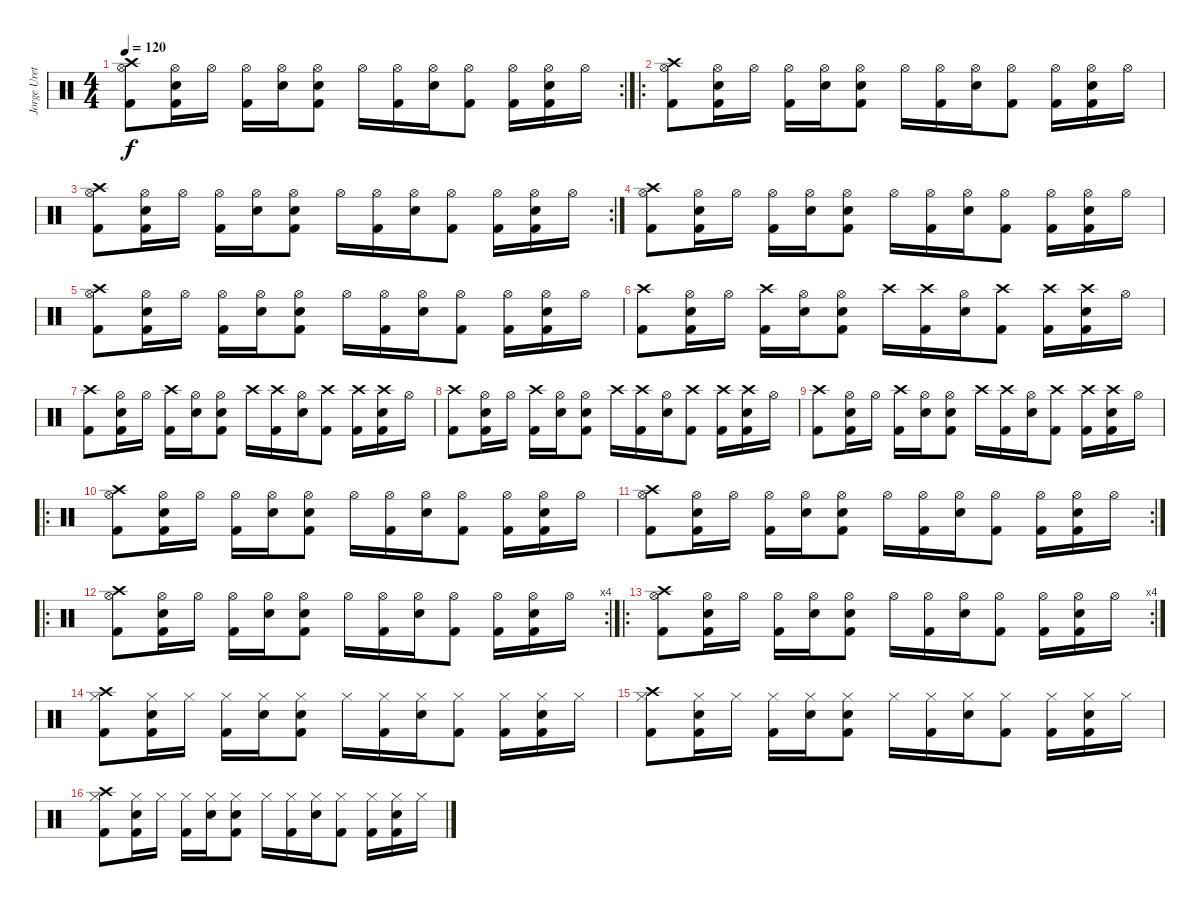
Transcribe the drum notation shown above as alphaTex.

\track ("Jorge Ureta" "Jorge Uret") {instrument percussion}
\staff {score}
\articulation defaults
\rc 2
\ts (4 4)
\tempo 120
\clef neutral
\ks c
("Crash high (hit)" "Hi-Hat (open)" "Kick (hit) 2").8{dy f} ("Hi-Hat (open)" "Electric Snare (hit)" "Kick (hit) 2").16 "Hi-Hat (open)".16 ("Hi-Hat (open)" "Kick (hit) 2").16 ("Hi-Hat (open)" "Electric Snare (hit)").16 ("Hi-Hat (open)" "Electric Snare (hit)" "Kick (hit) 2").8 "Hi-Hat (open)".16 ("Hi-Hat (open)" "Kick (hit) 2").16 ("Hi-Hat (open)" "Electric Snare (hit)").16 ("Hi-Hat (open)" "Kick (hit) 2").8 ("Hi-Hat (open)" "Kick (hit) 2").16 ("Hi-Hat (open)" "Electric Snare (hit)" "Kick (hit) 2").16 "Hi-Hat (open)".16 |
\ro
("Crash high (hit)" "Hi-Hat (open)" "Kick (hit) 2").8 ("Hi-Hat (open)" "Electric Snare (hit)" "Kick (hit) 2").16 "Hi-Hat (open)".16 ("Hi-Hat (open)" "Kick (hit) 2").16 ("Hi-Hat (open)" "Electric Snare (hit)").16 ("Hi-Hat (open)" "Electric Snare (hit)" "Kick (hit) 2").8 "Hi-Hat (open)".16 ("Hi-Hat (open)" "Kick (hit) 2").16 ("Hi-Hat (open)" "Electric Snare (hit)").16 ("Hi-Hat (open)" "Kick (hit) 2").8 ("Hi-Hat (open)" "Kick (hit) 2").16 ("Hi-Hat (open)" "Electric Snare (hit)" "Kick (hit) 2").16 "Hi-Hat (open)".16 |
\rc 2
("Crash high (hit)" "Hi-Hat (open)" "Kick (hit) 2").8 ("Hi-Hat (open)" "Electric Snare (hit)" "Kick (hit) 2").16 "Hi-Hat (open)".16 ("Hi-Hat (open)" "Kick (hit) 2").16 ("Hi-Hat (open)" "Electric Snare (hit)").16 ("Hi-Hat (open)" "Electric Snare (hit)" "Kick (hit) 2").8 "Hi-Hat (open)".16 ("Hi-Hat (open)" "Kick (hit) 2").16 ("Hi-Hat (open)" "Electric Snare (hit)").16 ("Hi-Hat (open)" "Kick (hit) 2").8 ("Hi-Hat (open)" "Kick (hit) 2").16 ("Hi-Hat (open)" "Electric Snare (hit)" "Kick (hit) 2").16 "Hi-Hat (open)".16 |
("Crash high (hit)" "Hi-Hat (open)" "Kick (hit) 2").8 ("Hi-Hat (open)" "Electric Snare (hit)" "Kick (hit) 2").16 "Hi-Hat (open)".16 ("Hi-Hat (open)" "Kick (hit) 2").16 ("Hi-Hat (open)" "Electric Snare (hit)").16 ("Hi-Hat (open)" "Electric Snare (hit)" "Kick (hit) 2").8 "Hi-Hat (open)".16 ("Hi-Hat (open)" "Kick (hit) 2").16 ("Hi-Hat (open)" "Electric Snare (hit)").16 ("Hi-Hat (open)" "Kick (hit) 2").8 ("Hi-Hat (open)" "Kick (hit) 2").16 ("Hi-Hat (open)" "Electric Snare (hit)" "Kick (hit) 2").16 "Hi-Hat (open)".16 |
("Crash high (hit)" "Hi-Hat (open)" "Kick (hit) 2").8 ("Hi-Hat (open)" "Electric Snare (hit)" "Kick (hit) 2").16 "Hi-Hat (open)".16 ("Hi-Hat (open)" "Kick (hit) 2").16 ("Hi-Hat (open)" "Electric Snare (hit)").16 ("Hi-Hat (open)" "Electric Snare (hit)" "Kick (hit) 2").8 "Hi-Hat (open)".16 ("Hi-Hat (open)" "Kick (hit) 2").16 ("Hi-Hat (open)" "Electric Snare (hit)").16 ("Hi-Hat (open)" "Kick (hit) 2").8 ("Hi-Hat (open)" "Kick (hit) 2").16 ("Hi-Hat (open)" "Electric Snare (hit)" "Kick (hit) 2").16 "Hi-Hat (open)".16 |
("Crash high (hit)" "Kick (hit) 2").8 ("Hi-Hat (open)" "Electric Snare (hit)" "Kick (hit) 2").16 "Hi-Hat (open)".16 ("Crash high (hit)" "Kick (hit) 2").16 ("Hi-Hat (open)" "Electric Snare (hit)").16 ("Hi-Hat (open)" "Electric Snare (hit)" "Kick (hit) 2").8 "Crash high (hit)".16 ("Crash high (hit)" "Kick (hit) 2").16 ("Hi-Hat (open)" "Electric Snare (hit)").16 ("Crash high (hit)" "Kick (hit) 2").8 ("Crash high (hit)" "Kick (hit) 2").16 ("Crash high (hit)" "Electric Snare (hit)" "Kick (hit) 2").16 "Hi-Hat (open)".16 |
("Crash high (hit)" "Kick (hit) 2").8 ("Hi-Hat (open)" "Electric Snare (hit)" "Kick (hit) 2").16 "Hi-Hat (open)".16 ("Crash high (hit)" "Kick (hit) 2").16 ("Hi-Hat (open)" "Electric Snare (hit)").16 ("Hi-Hat (open)" "Electric Snare (hit)" "Kick (hit) 2").8 "Crash high (hit)".16 ("Crash high (hit)" "Kick (hit) 2").16 ("Hi-Hat (open)" "Electric Snare (hit)").16 ("Crash high (hit)" "Kick (hit) 2").8 ("Crash high (hit)" "Kick (hit) 2").16 ("Crash high (hit)" "Electric Snare (hit)" "Kick (hit) 2").16 "Hi-Hat (open)".16 |
("Crash high (hit)" "Kick (hit) 2").8 ("Hi-Hat (open)" "Electric Snare (hit)" "Kick (hit) 2").16 "Hi-Hat (open)".16 ("Crash high (hit)" "Kick (hit) 2").16 ("Hi-Hat (open)" "Electric Snare (hit)").16 ("Hi-Hat (open)" "Electric Snare (hit)" "Kick (hit) 2").8 "Crash high (hit)".16 ("Crash high (hit)" "Kick (hit) 2").16 ("Hi-Hat (open)" "Electric Snare (hit)").16 ("Crash high (hit)" "Kick (hit) 2").8 ("Crash high (hit)" "Kick (hit) 2").16 ("Crash high (hit)" "Electric Snare (hit)" "Kick (hit) 2").16 "Hi-Hat (open)".16 |
("Crash high (hit)" "Kick (hit) 2").8 ("Hi-Hat (open)" "Electric Snare (hit)" "Kick (hit) 2").16 "Hi-Hat (open)".16 ("Crash high (hit)" "Kick (hit) 2").16 ("Hi-Hat (open)" "Electric Snare (hit)").16 ("Hi-Hat (open)" "Electric Snare (hit)" "Kick (hit) 2").8 "Crash high (hit)".16 ("Crash high (hit)" "Kick (hit) 2").16 ("Hi-Hat (open)" "Electric Snare (hit)").16 ("Crash high (hit)" "Kick (hit) 2").8 ("Crash high (hit)" "Kick (hit) 2").16 ("Crash high (hit)" "Electric Snare (hit)" "Kick (hit) 2").16 "Hi-Hat (open)".16 |
\ro
("Crash high (hit)" "Hi-Hat (open)" "Kick (hit) 2").8 ("Hi-Hat (open)" "Electric Snare (hit)" "Kick (hit) 2").16 "Hi-Hat (open)".16 ("Hi-Hat (open)" "Kick (hit) 2").16 ("Hi-Hat (open)" "Electric Snare (hit)").16 ("Hi-Hat (open)" "Electric Snare (hit)" "Kick (hit) 2").8 "Hi-Hat (open)".16 ("Hi-Hat (open)" "Kick (hit) 2").16 ("Hi-Hat (open)" "Electric Snare (hit)").16 ("Hi-Hat (open)" "Kick (hit) 2").8 ("Hi-Hat (open)" "Kick (hit) 2").16 ("Hi-Hat (open)" "Electric Snare (hit)" "Kick (hit) 2").16 "Hi-Hat (open)".16 |
\rc 2
("Crash high (hit)" "Hi-Hat (open)" "Kick (hit) 2").8 ("Hi-Hat (open)" "Electric Snare (hit)" "Kick (hit) 2").16 "Hi-Hat (open)".16 ("Hi-Hat (open)" "Kick (hit) 2").16 ("Hi-Hat (open)" "Electric Snare (hit)").16 ("Hi-Hat (open)" "Electric Snare (hit)" "Kick (hit) 2").8 "Hi-Hat (open)".16 ("Hi-Hat (open)" "Kick (hit) 2").16 ("Hi-Hat (open)" "Electric Snare (hit)").16 ("Hi-Hat (open)" "Kick (hit) 2").8 ("Hi-Hat (open)" "Kick (hit) 2").16 ("Hi-Hat (open)" "Electric Snare (hit)" "Kick (hit) 2").16 "Hi-Hat (open)".16 |
\ro
\rc 4
("Crash high (hit)" "Hi-Hat (open)" "Kick (hit) 2").8 ("Hi-Hat (open)" "Electric Snare (hit)" "Kick (hit) 2").16 "Hi-Hat (open)".16 ("Hi-Hat (open)" "Kick (hit) 2").16 ("Hi-Hat (open)" "Electric Snare (hit)").16 ("Hi-Hat (open)" "Electric Snare (hit)" "Kick (hit) 2").8 "Hi-Hat (open)".16 ("Hi-Hat (open)" "Kick (hit) 2").16 ("Hi-Hat (open)" "Electric Snare (hit)").16 ("Hi-Hat (open)" "Kick (hit) 2").8 ("Hi-Hat (open)" "Kick (hit) 2").16 ("Hi-Hat (open)" "Electric Snare (hit)" "Kick (hit) 2").16 "Hi-Hat (open)".16 |
\ro
\rc 4
("Crash high (hit)" "Hi-Hat (open)" "Kick (hit) 2").8 ("Hi-Hat (open)" "Electric Snare (hit)" "Kick (hit) 2").16 "Hi-Hat (open)".16 ("Hi-Hat (open)" "Kick (hit) 2").16 ("Hi-Hat (open)" "Electric Snare (hit)").16 ("Hi-Hat (open)" "Electric Snare (hit)" "Kick (hit) 2").8 "Hi-Hat (open)".16 ("Hi-Hat (open)" "Kick (hit) 2").16 ("Hi-Hat (open)" "Electric Snare (hit)").16 ("Hi-Hat (open)" "Kick (hit) 2").8 ("Hi-Hat (open)" "Kick (hit) 2").16 ("Hi-Hat (open)" "Electric Snare (hit)" "Kick (hit) 2").16 "Hi-Hat (open)".16 |
("Crash high (hit)" "Hi-Hat (closed)" "Kick (hit) 2").8 ("Hi-Hat (closed)" "Electric Snare (hit)" "Kick (hit) 2").16 "Hi-Hat (closed)".16 ("Hi-Hat (closed)" "Kick (hit) 2").16 ("Hi-Hat (closed)" "Electric Snare (hit)").16 ("Hi-Hat (closed)" "Electric Snare (hit)" "Kick (hit) 2").8 "Hi-Hat (closed)".16 ("Hi-Hat (closed)" "Kick (hit) 2").16 ("Hi-Hat (closed)" "Electric Snare (hit)").16 ("Hi-Hat (closed)" "Kick (hit) 2").8 ("Hi-Hat (closed)" "Kick (hit) 2").16 ("Hi-Hat (closed)" "Electric Snare (hit)" "Kick (hit) 2").16 "Hi-Hat (closed)".16 |
("Crash high (hit)" "Hi-Hat (closed)" "Kick (hit) 2").8 ("Hi-Hat (closed)" "Electric Snare (hit)" "Kick (hit) 2").16 "Hi-Hat (closed)".16 ("Hi-Hat (closed)" "Kick (hit) 2").16 ("Hi-Hat (closed)" "Electric Snare (hit)").16 ("Hi-Hat (closed)" "Electric Snare (hit)" "Kick (hit) 2").8 "Hi-Hat (closed)".16 ("Hi-Hat (closed)" "Kick (hit) 2").16 ("Hi-Hat (closed)" "Electric Snare (hit)").16 ("Hi-Hat (closed)" "Kick (hit) 2").8 ("Hi-Hat (closed)" "Kick (hit) 2").16 ("Hi-Hat (closed)" "Electric Snare (hit)" "Kick (hit) 2").16 "Hi-Hat (closed)".16 |
("Crash high (hit)" "Hi-Hat (closed)" "Kick (hit) 2").8 ("Hi-Hat (closed)" "Electric Snare (hit)" "Kick (hit) 2").16 "Hi-Hat (closed)".16 ("Hi-Hat (closed)" "Kick (hit) 2").16 ("Hi-Hat (closed)" "Electric Snare (hit)").16 ("Hi-Hat (closed)" "Electric Snare (hit)" "Kick (hit) 2").8 "Hi-Hat (closed)".16 ("Hi-Hat (closed)" "Kick (hit) 2").16 ("Hi-Hat (closed)" "Electric Snare (hit)").16 ("Hi-Hat (closed)" "Kick (hit) 2").8 ("Hi-Hat (closed)" "Kick (hit) 2").16 ("Hi-Hat (closed)" "Electric Snare (hit)" "Kick (hit) 2").16 "Hi-Hat (closed)".16
